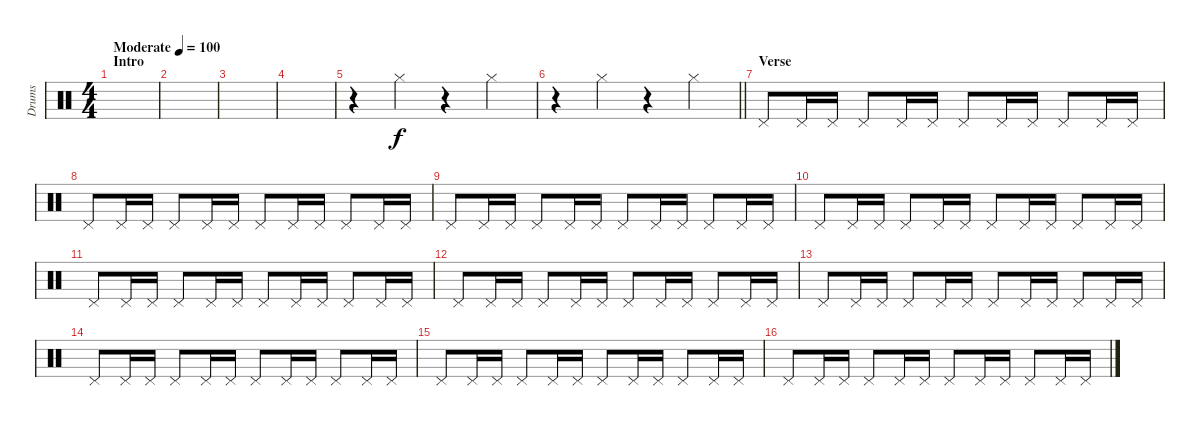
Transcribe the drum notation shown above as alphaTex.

\track ("Drums" "Drums") {instrument percussion}
\staff {score}
\articulation defaults
\ts (4 4)
\section ("" "Intro")
\tempo (100 "Moderate")
\clef neutral
\ks c
|
|
|
|
r.4 "Hi-Hat (closed)".4 r.4 "Hi-Hat (closed)".4 |
\barLineRight lightlight
r.4 "Hi-Hat (closed)".4 r.4 "Hi-Hat (closed)".4 |
\section ("" "Verse")
"Pedal Hi-Hat (hit)".8 "Pedal Hi-Hat (hit)".16 "Pedal Hi-Hat (hit)".16 "Pedal Hi-Hat (hit)".8 "Pedal Hi-Hat (hit)".16 "Pedal Hi-Hat (hit)".16 "Pedal Hi-Hat (hit)".8 "Pedal Hi-Hat (hit)".16 "Pedal Hi-Hat (hit)".16 "Pedal Hi-Hat (hit)".8 "Pedal Hi-Hat (hit)".16 "Pedal Hi-Hat (hit)".16 |
"Pedal Hi-Hat (hit)".8 "Pedal Hi-Hat (hit)".16 "Pedal Hi-Hat (hit)".16 "Pedal Hi-Hat (hit)".8 "Pedal Hi-Hat (hit)".16 "Pedal Hi-Hat (hit)".16 "Pedal Hi-Hat (hit)".8 "Pedal Hi-Hat (hit)".16 "Pedal Hi-Hat (hit)".16 "Pedal Hi-Hat (hit)".8 "Pedal Hi-Hat (hit)".16 "Pedal Hi-Hat (hit)".16 |
"Pedal Hi-Hat (hit)".8 "Pedal Hi-Hat (hit)".16 "Pedal Hi-Hat (hit)".16 "Pedal Hi-Hat (hit)".8 "Pedal Hi-Hat (hit)".16 "Pedal Hi-Hat (hit)".16 "Pedal Hi-Hat (hit)".8 "Pedal Hi-Hat (hit)".16 "Pedal Hi-Hat (hit)".16 "Pedal Hi-Hat (hit)".8 "Pedal Hi-Hat (hit)".16 "Pedal Hi-Hat (hit)".16 |
"Pedal Hi-Hat (hit)".8 "Pedal Hi-Hat (hit)".16 "Pedal Hi-Hat (hit)".16 "Pedal Hi-Hat (hit)".8 "Pedal Hi-Hat (hit)".16 "Pedal Hi-Hat (hit)".16 "Pedal Hi-Hat (hit)".8 "Pedal Hi-Hat (hit)".16 "Pedal Hi-Hat (hit)".16 "Pedal Hi-Hat (hit)".8 "Pedal Hi-Hat (hit)".16 "Pedal Hi-Hat (hit)".16 |
"Pedal Hi-Hat (hit)".8 "Pedal Hi-Hat (hit)".16 "Pedal Hi-Hat (hit)".16 "Pedal Hi-Hat (hit)".8 "Pedal Hi-Hat (hit)".16 "Pedal Hi-Hat (hit)".16 "Pedal Hi-Hat (hit)".8 "Pedal Hi-Hat (hit)".16 "Pedal Hi-Hat (hit)".16 "Pedal Hi-Hat (hit)".8 "Pedal Hi-Hat (hit)".16 "Pedal Hi-Hat (hit)".16 |
"Pedal Hi-Hat (hit)".8 "Pedal Hi-Hat (hit)".16 "Pedal Hi-Hat (hit)".16 "Pedal Hi-Hat (hit)".8 "Pedal Hi-Hat (hit)".16 "Pedal Hi-Hat (hit)".16 "Pedal Hi-Hat (hit)".8 "Pedal Hi-Hat (hit)".16 "Pedal Hi-Hat (hit)".16 "Pedal Hi-Hat (hit)".8 "Pedal Hi-Hat (hit)".16 "Pedal Hi-Hat (hit)".16 |
"Pedal Hi-Hat (hit)".8 "Pedal Hi-Hat (hit)".16 "Pedal Hi-Hat (hit)".16 "Pedal Hi-Hat (hit)".8 "Pedal Hi-Hat (hit)".16 "Pedal Hi-Hat (hit)".16 "Pedal Hi-Hat (hit)".8 "Pedal Hi-Hat (hit)".16 "Pedal Hi-Hat (hit)".16 "Pedal Hi-Hat (hit)".8 "Pedal Hi-Hat (hit)".16 "Pedal Hi-Hat (hit)".16 |
"Pedal Hi-Hat (hit)".8 "Pedal Hi-Hat (hit)".16 "Pedal Hi-Hat (hit)".16 "Pedal Hi-Hat (hit)".8 "Pedal Hi-Hat (hit)".16 "Pedal Hi-Hat (hit)".16 "Pedal Hi-Hat (hit)".8 "Pedal Hi-Hat (hit)".16 "Pedal Hi-Hat (hit)".16 "Pedal Hi-Hat (hit)".8 "Pedal Hi-Hat (hit)".16 "Pedal Hi-Hat (hit)".16 |
"Pedal Hi-Hat (hit)".8 "Pedal Hi-Hat (hit)".16 "Pedal Hi-Hat (hit)".16 "Pedal Hi-Hat (hit)".8 "Pedal Hi-Hat (hit)".16 "Pedal Hi-Hat (hit)".16 "Pedal Hi-Hat (hit)".8 "Pedal Hi-Hat (hit)".16 "Pedal Hi-Hat (hit)".16 "Pedal Hi-Hat (hit)".8 "Pedal Hi-Hat (hit)".16 "Pedal Hi-Hat (hit)".16 |
"Pedal Hi-Hat (hit)".8 "Pedal Hi-Hat (hit)".16 "Pedal Hi-Hat (hit)".16 "Pedal Hi-Hat (hit)".8 "Pedal Hi-Hat (hit)".16 "Pedal Hi-Hat (hit)".16 "Pedal Hi-Hat (hit)".8 "Pedal Hi-Hat (hit)".16 "Pedal Hi-Hat (hit)".16 "Pedal Hi-Hat (hit)".8 "Pedal Hi-Hat (hit)".16 "Pedal Hi-Hat (hit)".16
